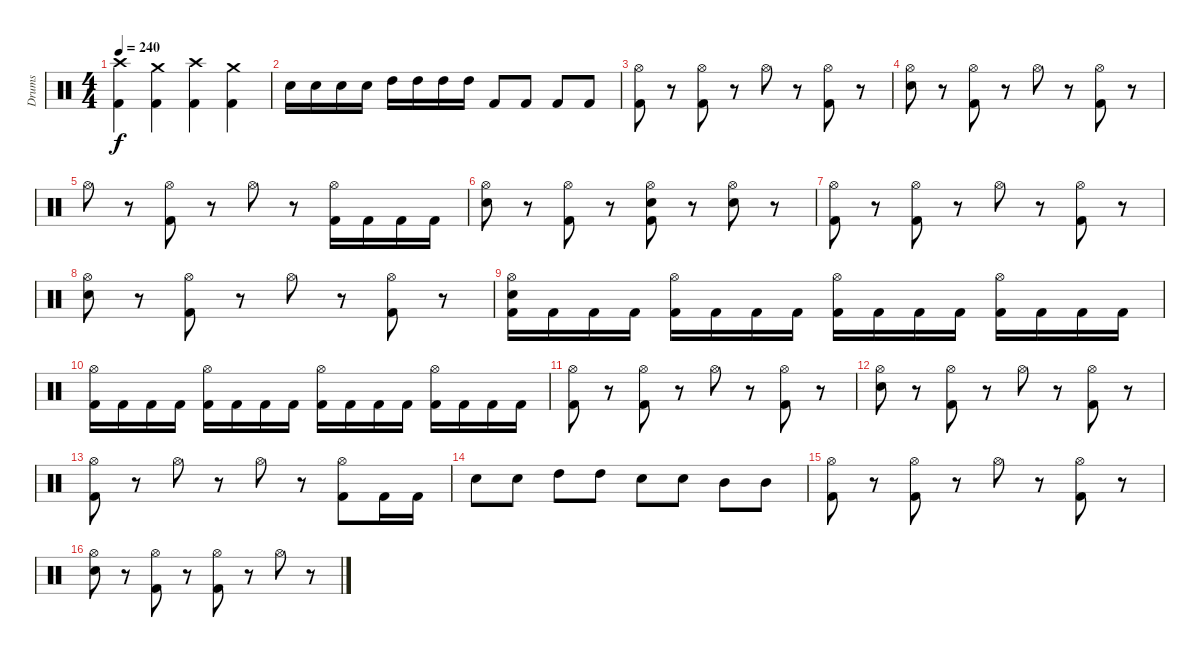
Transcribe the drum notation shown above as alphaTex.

\track ("Drums" "Drums") {instrument percussion}
\staff {score}
\articulation defaults
\ts (4 4)
\tempo 240
\clef neutral
\ks c
("Crash high (hit)" "Kick (hit) 2").4{dy f} ("Crash medium (hit)" "Kick (hit) 2").4 ("Crash high (hit)" "Kick (hit) 2").4 ("Crash medium (hit)" "Kick (hit) 2").4 |
"Snare (hit) 2".16 "Snare (hit) 2".16 "Snare (hit) 2".16 "Snare (hit) 2".16 "High Tom (hit)".16 "High Tom (hit)".16 "High Tom (hit)".16 "High Tom (hit)".16 "Kick (hit) 2".8 "Kick (hit) 2".8 "Kick (hit) 2".8 "Kick (hit) 2".8 |
("Hi-Hat (open)" "Kick (hit) 2").8 r.8 ("Hi-Hat (open)" "Kick (hit) 2").8 r.8 "Hi-Hat (open)".8 r.8 ("Hi-Hat (open)" "Kick (hit) 2").8 r.8 |
("Hi-Hat (open)" "Snare (hit) 2").8 r.8 ("Hi-Hat (open)" "Kick (hit) 2").8 r.8 "Hi-Hat (open)".8 r.8 ("Hi-Hat (open)" "Kick (hit) 2").8 r.8 |
"Hi-Hat (open)".8 r.8 ("Hi-Hat (open)" "Kick (hit) 2").8 r.8 "Hi-Hat (open)".8 r.8 ("Hi-Hat (open)" "Kick (hit) 2").16 "Kick (hit) 2".16 "Kick (hit) 2".16 "Kick (hit) 2".16 |
("Hi-Hat (open)" "Snare (hit) 2").8 r.8 ("Hi-Hat (open)" "Kick (hit) 2").8 r.8 ("Hi-Hat (open)" "Kick (hit) 2" "Snare (hit)").8 r.8 ("Hi-Hat (open)" "Snare (hit) 2").8 r.8 |
("Hi-Hat (open)" "Kick (hit) 2").8 r.8 ("Hi-Hat (open)" "Kick (hit) 2").8 r.8 "Hi-Hat (open)".8 r.8 ("Hi-Hat (open)" "Kick (hit) 2").8 r.8 |
("Hi-Hat (open)" "Snare (hit) 2").8 r.8 ("Hi-Hat (open)" "Kick (hit) 2").8 r.8 "Hi-Hat (open)".8 r.8 ("Hi-Hat (open)" "Kick (hit) 2").8 r.8 |
("Hi-Hat (open)" "Snare (hit) 2" "Kick (hit) 2").16 "Kick (hit) 2".16 "Kick (hit) 2".16 "Kick (hit) 2".16 ("Hi-Hat (open)" "Kick (hit) 2").16 "Kick (hit) 2".16 "Kick (hit) 2".16 "Kick (hit) 2".16 ("Hi-Hat (open)" "Kick (hit) 2").16 "Kick (hit) 2".16 "Kick (hit) 2".16 "Kick (hit) 2".16 ("Hi-Hat (open)" "Kick (hit) 2").16 "Kick (hit) 2".16 "Kick (hit) 2".16 "Kick (hit) 2".16 |
("Hi-Hat (open)" "Kick (hit) 2").16 "Kick (hit) 2".16 "Kick (hit) 2".16 "Kick (hit) 2".16 ("Hi-Hat (open)" "Kick (hit) 2").16 "Kick (hit) 2".16 "Kick (hit) 2".16 "Kick (hit) 2".16 ("Hi-Hat (open)" "Kick (hit) 2").16 "Kick (hit) 2".16 "Kick (hit) 2".16 "Kick (hit) 2".16 ("Hi-Hat (open)" "Kick (hit) 2").16 "Kick (hit) 2".16 "Kick (hit) 2".16 "Kick (hit) 2".16 |
("Hi-Hat (open)" "Kick (hit) 2").8 r.8 ("Hi-Hat (open)" "Kick (hit) 2").8 r.8 "Hi-Hat (open)".8 r.8 ("Hi-Hat (open)" "Kick (hit) 2").8 r.8 |
("Hi-Hat (open)" "Snare (hit) 2").8 r.8 ("Hi-Hat (open)" "Kick (hit) 2").8 r.8 "Hi-Hat (open)".8 r.8 ("Hi-Hat (open)" "Kick (hit) 2").8 r.8 |
("Hi-Hat (open)" "Kick (hit) 2").8 r.8 "Hi-Hat (open)".8 r.8 "Hi-Hat (open)".8 r.8 ("Hi-Hat (open)" "Kick (hit) 2").8 "Kick (hit) 2".16 "Kick (hit) 2".16 |
"Snare (hit) 2".8 "Snare (hit) 2".8 "High Tom (hit)".8 "High Tom (hit)".8 "Snare (hit) 2".8 "Snare (hit) 2".8 "Mid Tom (hit)".8 "Mid Tom (hit)".8 |
("Hi-Hat (open)" "Kick (hit) 2").8 r.8 ("Hi-Hat (open)" "Kick (hit) 2").8 r.8 "Hi-Hat (open)".8 r.8 ("Hi-Hat (open)" "Kick (hit) 2").8 r.8 |
("Hi-Hat (open)" "Snare (hit) 2").8 r.8 ("Hi-Hat (open)" "Kick (hit) 2").8 r.8 ("Hi-Hat (open)" "Kick (hit) 2").8 r.8 "Hi-Hat (open)".8 r.8
